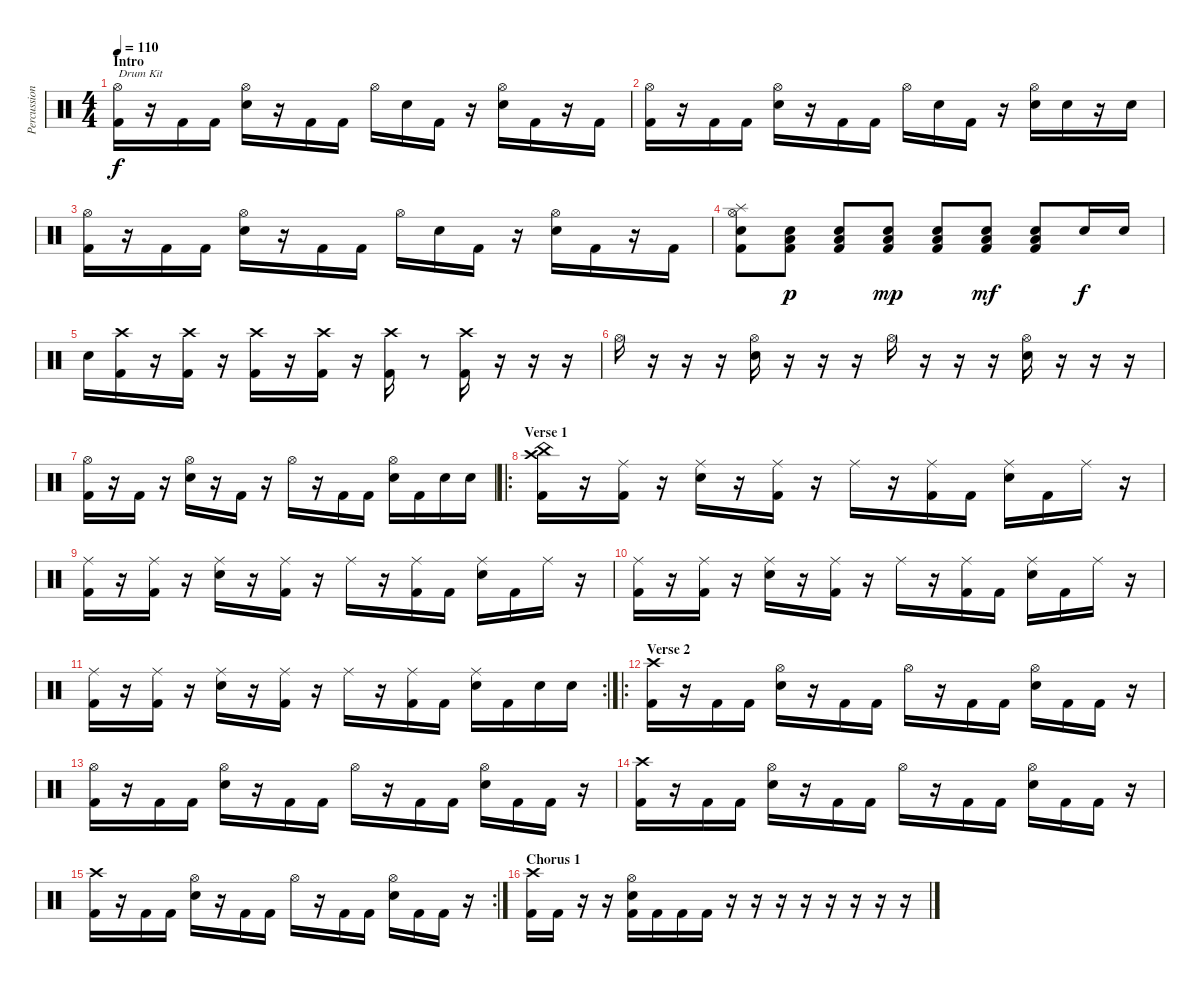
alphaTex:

\track ("Percussion" "Percussion") {instrument percussion}
\staff {score}
\articulation defaults
\ts (4 4)
\section ("" "Intro")
\tempo 110
\clef neutral
\ks c
("Hi-Hat (open)" "Kick (hit) 2").16{txt "Drum Kit" dy f} r.16 "Kick (hit) 2".16 "Kick (hit) 2".16 ("Hi-Hat (open)" "Electric Snare (hit)").16 r.16 "Kick (hit) 2".16 "Kick (hit) 2".16 "Hi-Hat (open)".16 "Electric Snare (hit)".16 "Kick (hit) 2".16 r.16 ("Hi-Hat (open)" "Electric Snare (hit)").16 "Kick (hit) 2".16 r.16 "Kick (hit) 2".16 |
("Hi-Hat (open)" "Kick (hit) 2").16 r.16 "Kick (hit) 2".16 "Kick (hit) 2".16 ("Hi-Hat (open)" "Electric Snare (hit)").16 r.16 "Kick (hit) 2".16 "Kick (hit) 2".16 "Hi-Hat (open)".16 "Electric Snare (hit)".16 "Kick (hit) 2".16 r.16 ("Hi-Hat (open)" "Electric Snare (hit)").16 "Electric Snare (hit)".16 r.16 "Electric Snare (hit)".16 |
("Hi-Hat (open)" "Kick (hit) 2").16 r.16 "Kick (hit) 2".16 "Kick (hit) 2".16 ("Hi-Hat (open)" "Electric Snare (hit)").16 r.16 "Kick (hit) 2".16 "Kick (hit) 2".16 "Hi-Hat (open)".16 "Electric Snare (hit)".16 "Kick (hit) 2".16 r.16 ("Hi-Hat (open)" "Electric Snare (hit)").16 "Kick (hit) 2".16 r.16 "Kick (hit) 2".16 |
("Splash (hit)" "Hi-Hat (open)" "Electric Snare (hit)" "Kick (hit) 2").8 ("Electric Snare (hit)" "Low Floor Tom (hit)" "Kick (hit) 2").8{dy p} ("Electric Snare (hit)" "Low Floor Tom (hit)" "Kick (hit) 2").8 ("Electric Snare (hit)" "Low Floor Tom (hit)" "Kick (hit) 2").8{dy mp} ("Electric Snare (hit)" "Low Floor Tom (hit)" "Kick (hit) 2").8 ("Electric Snare (hit)" "Low Floor Tom (hit)" "Kick (hit) 2").8{dy mf} ("Electric Snare (hit)" "Low Floor Tom (hit)" "Kick (hit) 2").8 "Electric Snare (hit)".16{dy f} "Electric Snare (hit)".16 |
"Electric Snare (hit)".16 ("Crash high (hit)" "Kick (hit) 2").16 r.16 ("Crash high (hit)" "Kick (hit) 2").16 r.16 ("Crash high (hit)" "Kick (hit) 2").16 r.16 ("Crash high (hit)" "Kick (hit) 2").16 r.16 ("Crash high (hit)" "Kick (hit) 2").16 r.8 ("Crash high (hit)" "Kick (hit) 2").16 r.16 r.16 r.16 |
"Hi-Hat (open)".16 r.16 r.16 r.16 ("Hi-Hat (open)" "Electric Snare (hit)").16 r.16 r.16 r.16 "Hi-Hat (open)".16 r.16 r.16 r.16 ("Hi-Hat (open)" "Electric Snare (hit)").16 r.16 r.16 r.16 |
("Hi-Hat (open)" "Kick (hit) 2").16 r.16 "Kick (hit) 2".16 r.16 ("Hi-Hat (open)" "Electric Snare (hit)").16 r.16 "Kick (hit) 2".16 r.16 "Hi-Hat (open)".16 r.16 "Kick (hit) 2".16 "Kick (hit) 2".16 ("Hi-Hat (open)" "Electric Snare (hit)").16 "Kick (hit) 2".16 "Electric Snare (hit)".16 "Electric Snare (hit)".16 |
\ro
\section ("" "Verse 1")
("Crash high (hit)" "China (hit)" "Kick (hit) 2").16 r.16 ("Ride (middle)" "Kick (hit) 2").16 r.16 ("Ride (middle)" "Electric Snare (hit)").16 r.16 ("Ride (middle)" "Kick (hit) 2").16 r.16 "Ride (middle)".16 r.16 ("Ride (middle)" "Kick (hit) 2").16 "Kick (hit) 2".16 ("Ride (middle)" "Electric Snare (hit)").16 "Kick (hit) 2".16 "Ride (middle)".16 r.16 |
("Ride (middle)" "Kick (hit) 2").16 r.16 ("Ride (middle)" "Kick (hit) 2").16 r.16 ("Ride (middle)" "Electric Snare (hit)").16 r.16 ("Ride (middle)" "Kick (hit) 2").16 r.16 "Ride (middle)".16 r.16 ("Ride (middle)" "Kick (hit) 2").16 "Kick (hit) 2".16 ("Ride (middle)" "Electric Snare (hit)").16 "Kick (hit) 2".16 "Ride (middle)".16 r.16 |
("Ride (middle)" "Kick (hit) 2").16 r.16 ("Ride (middle)" "Kick (hit) 2").16 r.16 ("Ride (middle)" "Electric Snare (hit)").16 r.16 ("Ride (middle)" "Kick (hit) 2").16 r.16 "Ride (middle)".16 r.16 ("Ride (middle)" "Kick (hit) 2").16 "Kick (hit) 2".16 ("Ride (middle)" "Electric Snare (hit)").16 "Kick (hit) 2".16 "Ride (middle)".16 r.16 |
\rc 2
("Ride (middle)" "Kick (hit) 2").16 r.16 ("Ride (middle)" "Kick (hit) 2").16 r.16 ("Ride (middle)" "Electric Snare (hit)").16 r.16 ("Ride (middle)" "Kick (hit) 2").16 r.16 "Ride (middle)".16 r.16 ("Ride (middle)" "Kick (hit) 2").16 "Kick (hit) 2".16 ("Ride (middle)" "Electric Snare (hit)").16 "Kick (hit) 2".16 "Electric Snare (hit)".16 "Electric Snare (hit)".16 |
\ro
\section ("" "Verse 2")
("Crash high (hit)" "Kick (hit) 2").16 r.16 "Kick (hit) 2".16 "Kick (hit) 2".16 ("Hi-Hat (open)" "Electric Snare (hit)").16 r.16 "Kick (hit) 2".16 "Kick (hit) 2".16 "Hi-Hat (open)".16 r.16 "Kick (hit) 2".16 "Kick (hit) 2".16 ("Hi-Hat (open)" "Electric Snare (hit)").16 "Kick (hit) 2".16 "Kick (hit) 2".16 r.16 |
("Hi-Hat (open)" "Kick (hit) 2").16 r.16 "Kick (hit) 2".16 "Kick (hit) 2".16 ("Hi-Hat (open)" "Electric Snare (hit)").16 r.16 "Kick (hit) 2".16 "Kick (hit) 2".16 "Hi-Hat (open)".16 r.16 "Kick (hit) 2".16 "Kick (hit) 2".16 ("Hi-Hat (open)" "Electric Snare (hit)").16 "Kick (hit) 2".16 "Kick (hit) 2".16 r.16 |
("Crash high (hit)" "Kick (hit) 2").16 r.16 "Kick (hit) 2".16 "Kick (hit) 2".16 ("Hi-Hat (open)" "Electric Snare (hit)").16 r.16 "Kick (hit) 2".16 "Kick (hit) 2".16 "Hi-Hat (open)".16 r.16 "Kick (hit) 2".16 "Kick (hit) 2".16 ("Hi-Hat (open)" "Electric Snare (hit)").16 "Kick (hit) 2".16 "Kick (hit) 2".16 r.16 |
\rc 2
("Crash high (hit)" "Kick (hit) 2").16 r.16 "Kick (hit) 2".16 "Kick (hit) 2".16 ("Hi-Hat (open)" "Electric Snare (hit)").16 r.16 "Kick (hit) 2".16 "Kick (hit) 2".16 "Hi-Hat (open)".16 r.16 "Kick (hit) 2".16 "Kick (hit) 2".16 ("Hi-Hat (open)" "Electric Snare (hit)").16 "Kick (hit) 2".16 "Kick (hit) 2".16 r.16 |
\section ("" "Chorus 1")
("Crash high (hit)" "Kick (hit) 2").16 "Kick (hit) 2".16 r.16 r.16 ("Hi-Hat (open)" "Electric Snare (hit)" "Kick (hit) 2").16 "Kick (hit) 2".16 "Kick (hit) 2".16 "Kick (hit) 2".16 r.16 r.16 r.16 r.16 r.16 r.16 r.16 r.16
